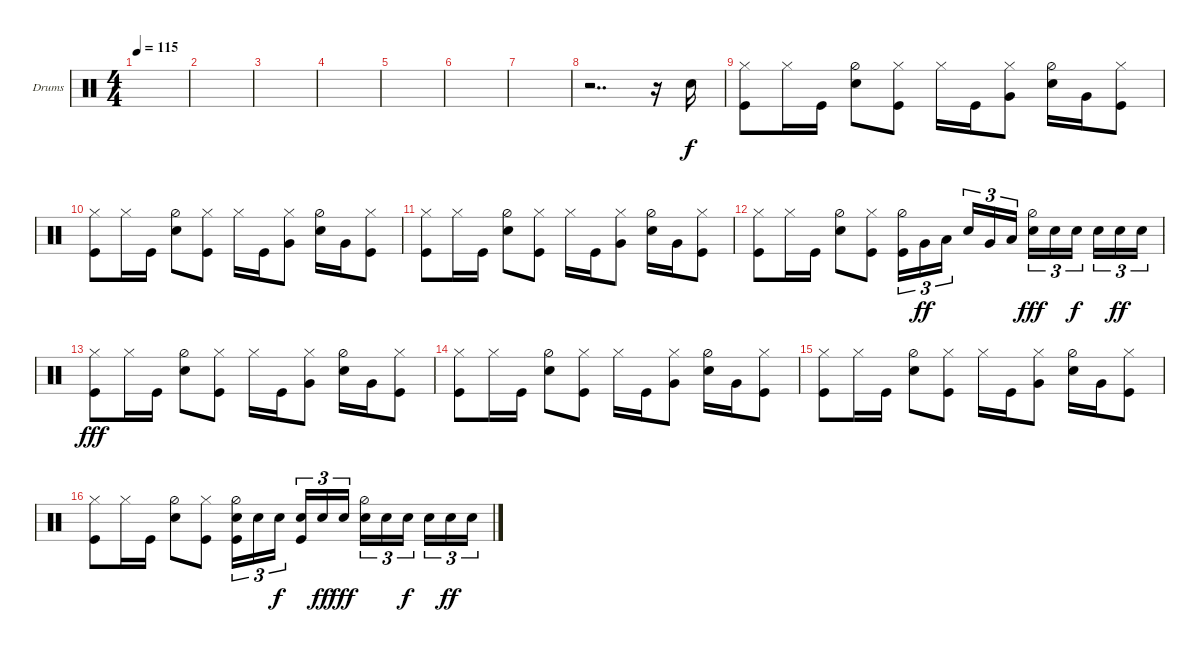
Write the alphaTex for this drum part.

\defaultSystemsLayout 4
\bracketExtendMode groupsimilarinstruments
\firstSystemTrackNameOrientation horizontal
\otherSystemsTrackNameOrientation horizontal
\track ("Drumkit" "Drums") {instrument percussion}
\staff {score}
\articulation defaults
\ts (4 4)
\tempo 115
\clef neutral
\ks c
|
|
|
|
|
|
|
r.2{dd} r.16 "Snare (hit) 2".16 |
("Kick (hit)" "Hi-Hat (closed)").8 "Hi-Hat (closed)".16 "Kick (hit)".16 ("Snare (hit) 2" "Hi-Hat (half)").8 ("Kick (hit)" "Hi-Hat (closed)").8 "Hi-Hat (closed)".16 "Kick (hit)".16 ("Hi-Hat (closed)" "Very Low Tom (hit)").8 ("Snare (hit) 2" "Hi-Hat (half)").16 "Very Low Tom (hit)".16 ("Kick (hit)" "Hi-Hat (closed)").8 |
("Kick (hit)" "Hi-Hat (closed)").8 "Hi-Hat (closed)".16 "Kick (hit)".16 ("Snare (hit) 2" "Hi-Hat (half)").8 ("Kick (hit)" "Hi-Hat (closed)").8 "Hi-Hat (closed)".16 "Kick (hit)".16 ("Hi-Hat (closed)" "Very Low Tom (hit)").8 ("Snare (hit) 2" "Hi-Hat (half)").16 "Very Low Tom (hit)".16 ("Kick (hit)" "Hi-Hat (closed)").8 |
("Kick (hit)" "Hi-Hat (closed)").8 "Hi-Hat (closed)".16 "Kick (hit)".16 ("Snare (hit) 2" "Hi-Hat (half)").8 ("Kick (hit)" "Hi-Hat (closed)").8 "Hi-Hat (closed)".16 "Kick (hit)".16 ("Hi-Hat (closed)" "Very Low Tom (hit)").8 ("Snare (hit) 2" "Hi-Hat (half)").16 "Very Low Tom (hit)".16 ("Kick (hit)" "Hi-Hat (closed)").8 |
("Kick (hit)" "Hi-Hat (closed)").8 "Hi-Hat (closed)".16 "Kick (hit)".16 ("Snare (hit) 2" "Hi-Hat (half)").8 ("Kick (hit)" "Hi-Hat (closed)").8 ("Kick (hit)" "Hi-Hat (half)").16{tu (3 2)} "Very Low Tom (hit)".16{tu (3 2) dy ff} "Low Tom (hit)".16{tu (3 2)} "Snare (hit) 2".16{tu (3 2)} "Very Low Tom (hit)".16{tu (3 2)} "Low Tom (hit)".16{tu (3 2)} ("Snare (hit) 2" "Hi-Hat (half)").16{tu (3 2) dy fff} "Snare (hit) 2".16{tu (3 2)} "Snare (hit) 2".16{tu (3 2) dy f} "Snare (hit) 2".16{tu (3 2)} "Snare (hit) 2".16{tu (3 2) dy ff} "Snare (hit) 2".16{tu (3 2)} |
("Kick (hit)" "Hi-Hat (closed)").8{dy fff} "Hi-Hat (closed)".16 "Kick (hit)".16 ("Snare (hit) 2" "Hi-Hat (half)").8 ("Kick (hit)" "Hi-Hat (closed)").8 "Hi-Hat (closed)".16 "Kick (hit)".16 ("Hi-Hat (closed)" "Very Low Tom (hit)").8 ("Snare (hit) 2" "Hi-Hat (half)").16 "Very Low Tom (hit)".16 ("Kick (hit)" "Hi-Hat (closed)").8 |
("Kick (hit)" "Hi-Hat (closed)").8 "Hi-Hat (closed)".16 "Kick (hit)".16 ("Snare (hit) 2" "Hi-Hat (half)").8 ("Kick (hit)" "Hi-Hat (closed)").8 "Hi-Hat (closed)".16 "Kick (hit)".16 ("Hi-Hat (closed)" "Very Low Tom (hit)").8 ("Snare (hit) 2" "Hi-Hat (half)").16 "Very Low Tom (hit)".16 ("Kick (hit)" "Hi-Hat (closed)").8 |
("Kick (hit)" "Hi-Hat (closed)").8 "Hi-Hat (closed)".16 "Kick (hit)".16 ("Snare (hit) 2" "Hi-Hat (half)").8 ("Kick (hit)" "Hi-Hat (closed)").8 "Hi-Hat (closed)".16 "Kick (hit)".16 ("Hi-Hat (closed)" "Very Low Tom (hit)").8 ("Snare (hit) 2" "Hi-Hat (half)").16 "Very Low Tom (hit)".16 ("Kick (hit)" "Hi-Hat (closed)").8 |
("Kick (hit)" "Hi-Hat (closed)").8 "Hi-Hat (closed)".16 "Kick (hit)".16 ("Snare (hit) 2" "Hi-Hat (half)").8 ("Kick (hit)" "Hi-Hat (closed)").8 ("Snare (hit) 2" "Kick (hit)" "Hi-Hat (half)").16{tu (3 2)} "Snare (hit) 2".16{tu (3 2)} "Snare (hit) 2".16{tu (3 2) dy f} ("Snare (hit) 2" "Kick (hit)").16{tu (3 2)} "Snare (hit) 2".16{tu (3 2) dy ff} "Snare (hit) 2".16{tu (3 2) dy fff} ("Snare (hit) 2" "Hi-Hat (half)").16{tu (3 2)} "Snare (hit) 2".16{tu (3 2)} "Snare (hit) 2".16{tu (3 2) dy f} "Snare (hit) 2".16{tu (3 2)} "Snare (hit) 2".16{tu (3 2) dy ff} "Snare (hit) 2".16{tu (3 2)}
